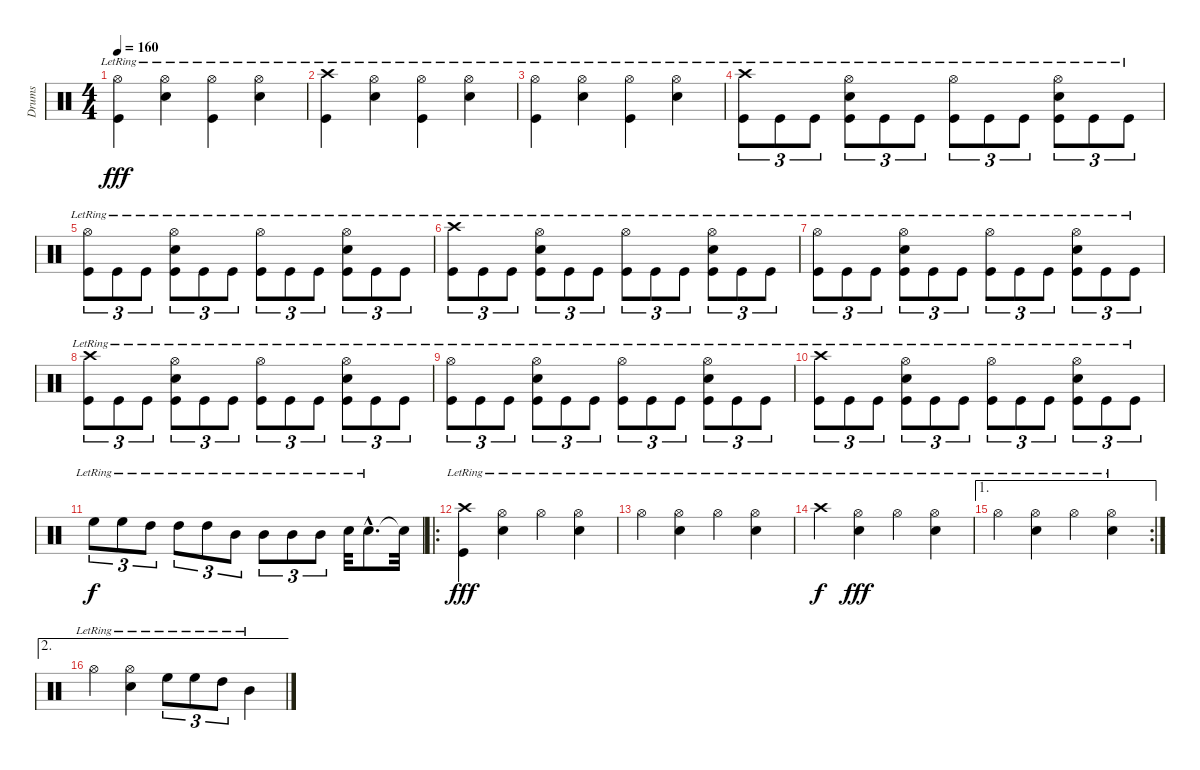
\track ("Drums" "Drums") {instrument percussion}
\staff {score}
\articulation defaults
\ts (4 4)
\tempo 160
\clef neutral
\ks c
("Hi-Hat (open)"{lr} "Kick (hit)"{lr}).4{dy fff} ("Hi-Hat (open)"{lr} "Snare (hit) 2"{lr}).4 ("Hi-Hat (open)"{lr} "Kick (hit)"{lr}).4 ("Hi-Hat (open)"{lr} "Snare (hit) 2"{lr}).4 |
("Crash high (hit)"{lr} "Kick (hit)"{lr}).4 ("Hi-Hat (open)"{lr} "Snare (hit) 2"{lr}).4 ("Hi-Hat (open)"{lr} "Kick (hit)"{lr}).4 ("Hi-Hat (open)"{lr} "Snare (hit) 2"{lr}).4 |
("Hi-Hat (open)"{lr} "Kick (hit)"{lr}).4 ("Hi-Hat (open)"{lr} "Snare (hit) 2"{lr}).4 ("Hi-Hat (open)"{lr} "Kick (hit)"{lr}).4 ("Hi-Hat (open)"{lr} "Snare (hit) 2"{lr}).4 |
("Crash high (hit)"{lr} "Kick (hit)"{lr}).8{tu (3 2)} "Kick (hit)"{lr}.8{tu (3 2)} "Kick (hit)"{lr}.8{tu (3 2)} ("Hi-Hat (open)"{lr} "Snare (hit) 2"{lr} "Kick (hit)"{lr}).8{tu (3 2)} "Kick (hit)"{lr}.8{tu (3 2)} "Kick (hit)"{lr}.8{tu (3 2)} ("Hi-Hat (open)"{lr} "Kick (hit)"{lr}).8{tu (3 2)} "Kick (hit)"{lr}.8{tu (3 2)} "Kick (hit)"{lr}.8{tu (3 2)} ("Hi-Hat (open)"{lr} "Snare (hit) 2"{lr} "Kick (hit)"{lr}).8{tu (3 2)} "Kick (hit)"{lr}.8{tu (3 2)} "Kick (hit)"{lr}.8{tu (3 2)} |
("Hi-Hat (open)"{lr} "Kick (hit)"{lr}).8{tu (3 2)} "Kick (hit)"{lr}.8{tu (3 2)} "Kick (hit)"{lr}.8{tu (3 2)} ("Hi-Hat (open)"{lr} "Snare (hit) 2"{lr} "Kick (hit)"{lr}).8{tu (3 2)} "Kick (hit)"{lr}.8{tu (3 2)} "Kick (hit)"{lr}.8{tu (3 2)} ("Hi-Hat (open)"{lr} "Kick (hit)"{lr}).8{tu (3 2)} "Kick (hit)"{lr}.8{tu (3 2)} "Kick (hit)"{lr}.8{tu (3 2)} ("Hi-Hat (open)"{lr} "Snare (hit) 2"{lr} "Kick (hit)"{lr}).8{tu (3 2)} "Kick (hit)"{lr}.8{tu (3 2)} "Kick (hit)"{lr}.8{tu (3 2)} |
("Crash high (hit)"{lr} "Kick (hit)"{lr}).8{tu (3 2)} "Kick (hit)"{lr}.8{tu (3 2)} "Kick (hit)"{lr}.8{tu (3 2)} ("Hi-Hat (open)"{lr} "Snare (hit) 2"{lr} "Kick (hit)"{lr}).8{tu (3 2)} "Kick (hit)"{lr}.8{tu (3 2)} "Kick (hit)"{lr}.8{tu (3 2)} ("Hi-Hat (open)"{lr} "Kick (hit)"{lr}).8{tu (3 2)} "Kick (hit)"{lr}.8{tu (3 2)} "Kick (hit)"{lr}.8{tu (3 2)} ("Hi-Hat (open)"{lr} "Snare (hit) 2"{lr} "Kick (hit)"{lr}).8{tu (3 2)} "Kick (hit)"{lr}.8{tu (3 2)} "Kick (hit)"{lr}.8{tu (3 2)} |
("Hi-Hat (open)"{lr} "Kick (hit)"{lr}).8{tu (3 2)} "Kick (hit)"{lr}.8{tu (3 2)} "Kick (hit)"{lr}.8{tu (3 2)} ("Hi-Hat (open)"{lr} "Snare (hit) 2"{lr} "Kick (hit)"{lr}).8{tu (3 2)} "Kick (hit)"{lr}.8{tu (3 2)} "Kick (hit)"{lr}.8{tu (3 2)} ("Hi-Hat (open)"{lr} "Kick (hit)"{lr}).8{tu (3 2)} "Kick (hit)"{lr}.8{tu (3 2)} "Kick (hit)"{lr}.8{tu (3 2)} ("Hi-Hat (open)"{lr} "Snare (hit) 2"{lr} "Kick (hit)"{lr}).8{tu (3 2)} "Kick (hit)"{lr}.8{tu (3 2)} "Kick (hit)"{lr}.8{tu (3 2)} |
("Crash high (hit)"{lr} "Kick (hit)"{lr}).8{tu (3 2)} "Kick (hit)"{lr}.8{tu (3 2)} "Kick (hit)"{lr}.8{tu (3 2)} ("Hi-Hat (open)"{lr} "Snare (hit) 2"{lr} "Kick (hit)"{lr}).8{tu (3 2)} "Kick (hit)"{lr}.8{tu (3 2)} "Kick (hit)"{lr}.8{tu (3 2)} ("Hi-Hat (open)"{lr} "Kick (hit)"{lr}).8{tu (3 2)} "Kick (hit)"{lr}.8{tu (3 2)} "Kick (hit)"{lr}.8{tu (3 2)} ("Hi-Hat (open)"{lr} "Snare (hit) 2"{lr} "Kick (hit)"{lr}).8{tu (3 2)} "Kick (hit)"{lr}.8{tu (3 2)} "Kick (hit)"{lr}.8{tu (3 2)} |
("Hi-Hat (open)"{lr} "Kick (hit)"{lr}).8{tu (3 2)} "Kick (hit)"{lr}.8{tu (3 2)} "Kick (hit)"{lr}.8{tu (3 2)} ("Hi-Hat (open)"{lr} "Snare (hit) 2"{lr} "Kick (hit)"{lr}).8{tu (3 2)} "Kick (hit)"{lr}.8{tu (3 2)} "Kick (hit)"{lr}.8{tu (3 2)} ("Hi-Hat (open)"{lr} "Kick (hit)"{lr}).8{tu (3 2)} "Kick (hit)"{lr}.8{tu (3 2)} "Kick (hit)"{lr}.8{tu (3 2)} ("Hi-Hat (open)"{lr} "Snare (hit) 2"{lr} "Kick (hit)"{lr}).8{tu (3 2)} "Kick (hit)"{lr}.8{tu (3 2)} "Kick (hit)"{lr}.8{tu (3 2)} |
("Crash high (hit)"{lr} "Kick (hit)"{lr}).8{tu (3 2)} "Kick (hit)"{lr}.8{tu (3 2)} "Kick (hit)"{lr}.8{tu (3 2)} ("Hi-Hat (open)"{lr} "Snare (hit) 2"{lr} "Kick (hit)"{lr}).8{tu (3 2)} "Kick (hit)"{lr}.8{tu (3 2)} "Kick (hit)"{lr}.8{tu (3 2)} ("Hi-Hat (open)"{lr} "Kick (hit)"{lr}).8{tu (3 2)} "Kick (hit)"{lr}.8{tu (3 2)} "Kick (hit)"{lr}.8{tu (3 2)} ("Hi-Hat (open)"{lr} "Snare (hit) 2"{lr} "Kick (hit)"{lr}).8{tu (3 2)} "Kick (hit)"{lr}.8{tu (3 2)} "Kick (hit)"{lr}.8{tu (3 2)} |
"High Floor Tom (hit)"{lr}.8{tu (3 2) dy f} "High Floor Tom (hit)"{lr}.8{tu (3 2)} "High Tom (hit)"{lr}.8{tu (3 2)} "High Tom (hit)"{lr}.8{tu (3 2)} "High Tom (hit)"{lr}.8{tu (3 2)} "Mid Tom (hit)"{lr}.8{tu (3 2)} "Mid Tom (hit)"{lr}.8{tu (3 2)} "Mid Tom (hit)"{lr}.8{tu (3 2)} "Mid Tom (hit)"{lr}.8{tu (3 2)} "Snare (hit) 2"{lr}.32 "Snare (hit) 2"{hac lr}.8{d} "Snare (hit)"{t}.32 |
\ro
("Crash high (hit)"{lr} "Kick (hit)"{lr}).4{dy fff} ("Hi-Hat (open)"{lr} "Snare (hit) 2"{lr}).4 "Hi-Hat (open)"{lr}.4 ("Hi-Hat (open)"{lr} "Snare (hit) 2"{lr}).4 |
"Hi-Hat (open)"{lr}.4 ("Hi-Hat (open)"{lr} "Snare (hit) 2"{lr}).4 "Hi-Hat (open)"{lr}.4 ("Hi-Hat (open)"{lr} "Snare (hit) 2"{lr}).4 |
"Crash high (hit)"{lr}.4{dy f} ("Hi-Hat (open)"{lr} "Snare (hit) 2"{lr}).4{dy fff} "Hi-Hat (open)"{lr}.4 ("Hi-Hat (open)"{lr} "Snare (hit) 2"{lr}).4 |
\ae 1
\rc 2 "Hi-Hat (open)"{lr}.4
("Hi-Hat (open)"{lr} "Snare (hit) 2"{lr}).4 "Hi-Hat (open)"{lr}.4 ("Hi-Hat (open)"{lr} "Snare (hit) 2"{lr}).4 |
\ae 2 "Hi-Hat (open)"{lr}.4
("Hi-Hat (open)"{lr} "Snare (hit) 2"{lr}).4 "High Floor Tom (hit)"{lr}.8{tu (3 2)} "High Floor Tom (hit)"{lr}.8{tu (3 2)} "High Tom (hit)"{lr}.8{tu (3 2)} "Mid Tom (hit)"{lr}.4
